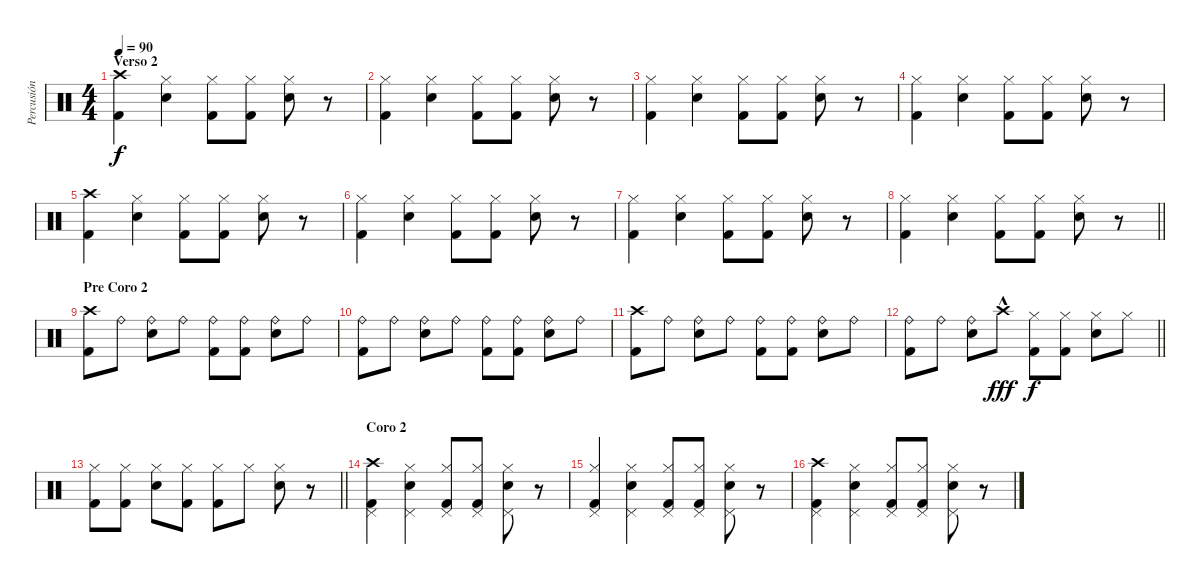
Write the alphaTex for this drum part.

\track ("Percusión" "Percusión") {instrument percussion}
\staff {score}
\articulation defaults
\ts (4 4)
\section ("" "Verso 2")
\tempo 90
\clef neutral
\ks c
("Crash high (hit)" "Kick (hit) 2").4{dy f} ("Hi-Hat (closed)" "Snare (hit) 2").4 ("Hi-Hat (closed)" "Kick (hit) 2").8 ("Hi-Hat (closed)" "Kick (hit) 2").8 ("Hi-Hat (closed)" "Snare (hit) 2").8 r.8 |
("Hi-Hat (closed)" "Kick (hit) 2").4 ("Hi-Hat (closed)" "Snare (hit) 2").4 ("Hi-Hat (closed)" "Kick (hit) 2").8 ("Hi-Hat (closed)" "Kick (hit) 2").8 ("Hi-Hat (closed)" "Snare (hit) 2").8 r.8 |
("Hi-Hat (closed)" "Kick (hit) 2").4 ("Hi-Hat (closed)" "Snare (hit) 2").4 ("Hi-Hat (closed)" "Kick (hit) 2").8 ("Hi-Hat (closed)" "Kick (hit) 2").8 ("Hi-Hat (closed)" "Snare (hit) 2").8 r.8 |
("Hi-Hat (closed)" "Kick (hit) 2").4 ("Hi-Hat (closed)" "Snare (hit) 2").4 ("Hi-Hat (closed)" "Kick (hit) 2").8 ("Hi-Hat (closed)" "Kick (hit) 2").8 ("Hi-Hat (closed)" "Snare (hit) 2").8 r.8 |
("Crash high (hit)" "Kick (hit) 2").4 ("Hi-Hat (closed)" "Snare (hit) 2").4 ("Hi-Hat (closed)" "Kick (hit) 2").8 ("Hi-Hat (closed)" "Kick (hit) 2").8 ("Hi-Hat (closed)" "Snare (hit) 2").8 r.8 |
("Hi-Hat (closed)" "Kick (hit) 2").4 ("Hi-Hat (closed)" "Snare (hit) 2").4 ("Hi-Hat (closed)" "Kick (hit) 2").8 ("Hi-Hat (closed)" "Kick (hit) 2").8 ("Hi-Hat (closed)" "Snare (hit) 2").8 r.8 |
("Hi-Hat (closed)" "Kick (hit) 2").4 ("Hi-Hat (closed)" "Snare (hit) 2").4 ("Hi-Hat (closed)" "Kick (hit) 2").8 ("Hi-Hat (closed)" "Kick (hit) 2").8 ("Hi-Hat (closed)" "Snare (hit) 2").8 r.8 |
\barLineRight lightlight
("Hi-Hat (closed)" "Kick (hit) 2").4 ("Hi-Hat (closed)" "Snare (hit) 2").4 ("Hi-Hat (closed)" "Kick (hit) 2").8 ("Hi-Hat (closed)" "Kick (hit) 2").8 ("Hi-Hat (closed)" "Snare (hit) 2").8 r.8 |
\section ("" "Pre Coro 2")
("Crash high (hit)" "Kick (hit) 2").8 "Ride (bell)".8 ("Ride (bell)" "Snare (hit) 2").8 "Ride (bell)".8 ("Ride (bell)" "Kick (hit) 2").8 ("Ride (bell)" "Kick (hit) 2").8 ("Ride (bell)" "Snare (hit) 2").8 "Ride (bell)".8 |
("Ride (bell)" "Kick (hit) 2").8 "Ride (bell)".8 ("Ride (bell)" "Snare (hit) 2").8 "Ride (bell)".8 ("Ride (bell)" "Kick (hit) 2").8 ("Ride (bell)" "Kick (hit) 2").8 ("Ride (bell)" "Snare (hit) 2").8 "Ride (bell)".8 |
("Crash high (hit)" "Kick (hit) 2").8 "Ride (bell)".8 ("Ride (bell)" "Snare (hit) 2").8 "Ride (bell)".8 ("Ride (bell)" "Kick (hit) 2").8 ("Ride (bell)" "Kick (hit) 2").8 ("Ride (bell)" "Snare (hit) 2").8 "Ride (bell)".8 |
\barLineRight lightlight
("Ride (bell)" "Kick (hit) 2").8 "Ride (bell)".8 ("Ride (bell)" "Snare (hit) 2").8 "Crash high (hit)"{hac}.8{dy fff} ("Hi-Hat (closed)" "Kick (hit) 2").8{dy f} ("Hi-Hat (closed)" "Kick (hit) 2").8 ("Hi-Hat (closed)" "Snare (hit) 2").8 "Hi-Hat (closed)".8 |
\barLineRight lightlight
("Hi-Hat (closed)" "Kick (hit) 2").8 ("Hi-Hat (closed)" "Kick (hit) 2").8 ("Hi-Hat (closed)" "Snare (hit) 2").8 ("Hi-Hat (closed)" "Kick (hit) 2").8 ("Hi-Hat (closed)" "Kick (hit) 2").8 "Hi-Hat (closed)".8 ("Hi-Hat (closed)" "Snare (hit) 2").8 r.8 |
\section ("" "Coro 2")
("Crash high (hit)" "Kick (hit) 2" "Pedal Hi-Hat (hit)").4 ("Hi-Hat (closed)" "Snare (hit) 2" "Pedal Hi-Hat (hit)").4 ("Hi-Hat (closed)" "Kick (hit) 2" "Pedal Hi-Hat (hit)").8 ("Hi-Hat (closed)" "Kick (hit) 2" "Pedal Hi-Hat (hit)").8 ("Hi-Hat (closed)" "Snare (hit) 2" "Pedal Hi-Hat (hit)").8 r.8 |
("Hi-Hat (closed)" "Kick (hit) 2" "Pedal Hi-Hat (hit)").4 ("Hi-Hat (closed)" "Snare (hit) 2" "Pedal Hi-Hat (hit)").4 ("Hi-Hat (closed)" "Kick (hit) 2" "Pedal Hi-Hat (hit)").8 ("Hi-Hat (closed)" "Kick (hit) 2" "Pedal Hi-Hat (hit)").8 ("Hi-Hat (closed)" "Snare (hit) 2" "Pedal Hi-Hat (hit)").8 r.8 |
("Crash high (hit)" "Kick (hit) 2" "Pedal Hi-Hat (hit)").4 ("Hi-Hat (closed)" "Snare (hit) 2" "Pedal Hi-Hat (hit)").4 ("Hi-Hat (closed)" "Kick (hit) 2" "Pedal Hi-Hat (hit)").8 ("Hi-Hat (closed)" "Kick (hit) 2" "Pedal Hi-Hat (hit)").8 ("Hi-Hat (closed)" "Snare (hit) 2" "Pedal Hi-Hat (hit)").8 r.8
